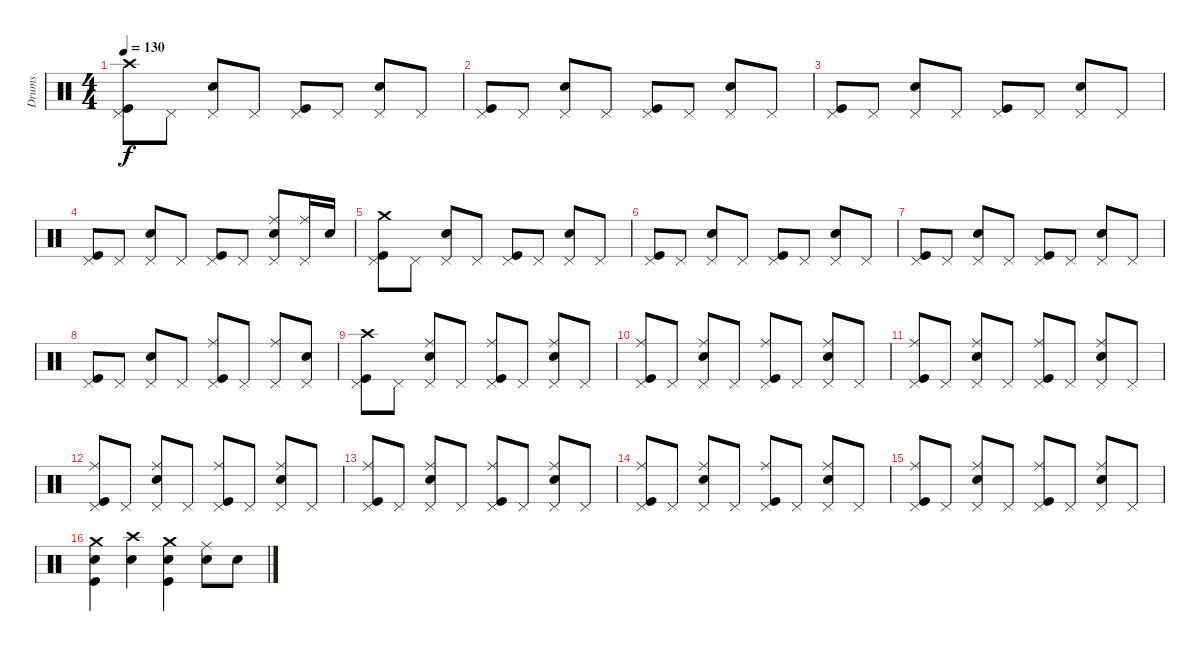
\track ("Drums" "Drums") {instrument percussion}
\staff {score}
\articulation defaults
\ts (4 4)
\tempo 130
\clef neutral
\ks c
("Crash high (hit)" "Pedal Hi-Hat (hit)" "Kick (hit)").8{dy f} "Pedal Hi-Hat (hit)".8 ("Pedal Hi-Hat (hit)" "Electric Snare (hit)").8 "Pedal Hi-Hat (hit)".8 ("Pedal Hi-Hat (hit)" "Kick (hit)").8 "Pedal Hi-Hat (hit)".8 ("Pedal Hi-Hat (hit)" "Electric Snare (hit)").8 "Pedal Hi-Hat (hit)".8 |
("Pedal Hi-Hat (hit)" "Kick (hit)").8 "Pedal Hi-Hat (hit)".8 ("Pedal Hi-Hat (hit)" "Electric Snare (hit)").8 "Pedal Hi-Hat (hit)".8 ("Pedal Hi-Hat (hit)" "Kick (hit)").8 "Pedal Hi-Hat (hit)".8 ("Pedal Hi-Hat (hit)" "Electric Snare (hit)").8 "Pedal Hi-Hat (hit)".8 |
("Pedal Hi-Hat (hit)" "Kick (hit)").8 "Pedal Hi-Hat (hit)".8 ("Pedal Hi-Hat (hit)" "Electric Snare (hit)").8 "Pedal Hi-Hat (hit)".8 ("Pedal Hi-Hat (hit)" "Kick (hit)").8 "Pedal Hi-Hat (hit)".8 ("Pedal Hi-Hat (hit)" "Electric Snare (hit)").8 "Pedal Hi-Hat (hit)".8 |
("Pedal Hi-Hat (hit)" "Kick (hit)").8 "Pedal Hi-Hat (hit)".8 ("Pedal Hi-Hat (hit)" "Electric Snare (hit)").8 "Pedal Hi-Hat (hit)".8 ("Pedal Hi-Hat (hit)" "Kick (hit)").8 "Pedal Hi-Hat (hit)".8 ("Ride (middle)" "Pedal Hi-Hat (hit)" "Electric Snare (hit)").8 ("Ride (middle)" "Pedal Hi-Hat (hit)").16 "Electric Snare (hit)".16 |
("Crash medium (hit)" "Pedal Hi-Hat (hit)" "Kick (hit)").8 "Pedal Hi-Hat (hit)".8 ("Pedal Hi-Hat (hit)" "Electric Snare (hit)").8 "Pedal Hi-Hat (hit)".8 ("Pedal Hi-Hat (hit)" "Kick (hit)").8 "Pedal Hi-Hat (hit)".8 ("Pedal Hi-Hat (hit)" "Electric Snare (hit)").8 "Pedal Hi-Hat (hit)".8 |
("Pedal Hi-Hat (hit)" "Kick (hit)").8 "Pedal Hi-Hat (hit)".8 ("Pedal Hi-Hat (hit)" "Electric Snare (hit)").8 "Pedal Hi-Hat (hit)".8 ("Pedal Hi-Hat (hit)" "Kick (hit)").8 "Pedal Hi-Hat (hit)".8 ("Pedal Hi-Hat (hit)" "Electric Snare (hit)").8 "Pedal Hi-Hat (hit)".8 |
("Pedal Hi-Hat (hit)" "Kick (hit)").8 "Pedal Hi-Hat (hit)".8 ("Pedal Hi-Hat (hit)" "Electric Snare (hit)").8 "Pedal Hi-Hat (hit)".8 ("Pedal Hi-Hat (hit)" "Kick (hit)").8 "Pedal Hi-Hat (hit)".8 ("Pedal Hi-Hat (hit)" "Electric Snare (hit)").8 "Pedal Hi-Hat (hit)".8 |
("Pedal Hi-Hat (hit)" "Kick (hit)").8 "Pedal Hi-Hat (hit)".8 ("Pedal Hi-Hat (hit)" "Electric Snare (hit)").8 "Pedal Hi-Hat (hit)".8 ("Ride (middle)" "Pedal Hi-Hat (hit)" "Kick (hit)").8 "Pedal Hi-Hat (hit)".8 ("Ride (middle)" "Pedal Hi-Hat (hit)").8 ("Electric Snare (hit)" "Pedal Hi-Hat (hit)").8 |
("Crash high (hit)" "Pedal Hi-Hat (hit)" "Kick (hit)").8 "Pedal Hi-Hat (hit)".8 ("Ride (middle)" "Pedal Hi-Hat (hit)" "Electric Snare (hit)").8 "Pedal Hi-Hat (hit)".8 ("Ride (middle)" "Pedal Hi-Hat (hit)" "Kick (hit)").8 "Pedal Hi-Hat (hit)".8 ("Ride (middle)" "Pedal Hi-Hat (hit)" "Electric Snare (hit)").8 "Pedal Hi-Hat (hit)".8 |
("Ride (middle)" "Pedal Hi-Hat (hit)" "Kick (hit)").8 "Pedal Hi-Hat (hit)".8 ("Ride (middle)" "Pedal Hi-Hat (hit)" "Electric Snare (hit)").8 "Pedal Hi-Hat (hit)".8 ("Ride (middle)" "Pedal Hi-Hat (hit)" "Kick (hit)").8 "Pedal Hi-Hat (hit)".8 ("Ride (middle)" "Pedal Hi-Hat (hit)" "Electric Snare (hit)").8 "Pedal Hi-Hat (hit)".8 |
("Ride (middle)" "Pedal Hi-Hat (hit)" "Kick (hit)").8 "Pedal Hi-Hat (hit)".8 ("Ride (middle)" "Pedal Hi-Hat (hit)" "Electric Snare (hit)").8 "Pedal Hi-Hat (hit)".8 ("Ride (middle)" "Pedal Hi-Hat (hit)" "Kick (hit)").8 "Pedal Hi-Hat (hit)".8 ("Ride (middle)" "Pedal Hi-Hat (hit)" "Electric Snare (hit)").8 "Pedal Hi-Hat (hit)".8 |
("Ride (middle)" "Pedal Hi-Hat (hit)" "Kick (hit)").8 "Pedal Hi-Hat (hit)".8 ("Ride (middle)" "Pedal Hi-Hat (hit)" "Electric Snare (hit)").8 "Pedal Hi-Hat (hit)".8 ("Ride (middle)" "Pedal Hi-Hat (hit)" "Kick (hit)").8 "Pedal Hi-Hat (hit)".8 ("Ride (middle)" "Pedal Hi-Hat (hit)" "Electric Snare (hit)").8 "Pedal Hi-Hat (hit)".8 |
("Ride (middle)" "Pedal Hi-Hat (hit)" "Kick (hit)").8 "Pedal Hi-Hat (hit)".8 ("Ride (middle)" "Pedal Hi-Hat (hit)" "Electric Snare (hit)").8 "Pedal Hi-Hat (hit)".8 ("Ride (middle)" "Pedal Hi-Hat (hit)" "Kick (hit)").8 "Pedal Hi-Hat (hit)".8 ("Ride (middle)" "Pedal Hi-Hat (hit)" "Electric Snare (hit)").8 "Pedal Hi-Hat (hit)".8 |
("Ride (middle)" "Pedal Hi-Hat (hit)" "Kick (hit)").8 "Pedal Hi-Hat (hit)".8 ("Ride (middle)" "Pedal Hi-Hat (hit)" "Electric Snare (hit)").8 "Pedal Hi-Hat (hit)".8 ("Ride (middle)" "Pedal Hi-Hat (hit)" "Kick (hit)").8 "Pedal Hi-Hat (hit)".8 ("Ride (middle)" "Pedal Hi-Hat (hit)" "Electric Snare (hit)").8 "Pedal Hi-Hat (hit)".8 |
("Ride (middle)" "Pedal Hi-Hat (hit)" "Kick (hit)").8 "Pedal Hi-Hat (hit)".8 ("Ride (middle)" "Pedal Hi-Hat (hit)" "Electric Snare (hit)").8 "Pedal Hi-Hat (hit)".8 ("Ride (middle)" "Pedal Hi-Hat (hit)" "Kick (hit)").8 "Pedal Hi-Hat (hit)".8 ("Ride (middle)" "Pedal Hi-Hat (hit)" "Electric Snare (hit)").8 "Pedal Hi-Hat (hit)".8 |
("Electric Snare (hit)" "Crash medium (hit)" "Kick (hit)").4 ("Crash high (hit)" "Electric Snare (hit)").4 ("Electric Snare (hit)" "Crash medium (hit)" "Kick (hit)").4 ("Ride (middle)" "Electric Snare (hit)").8 "Electric Snare (hit)".8
